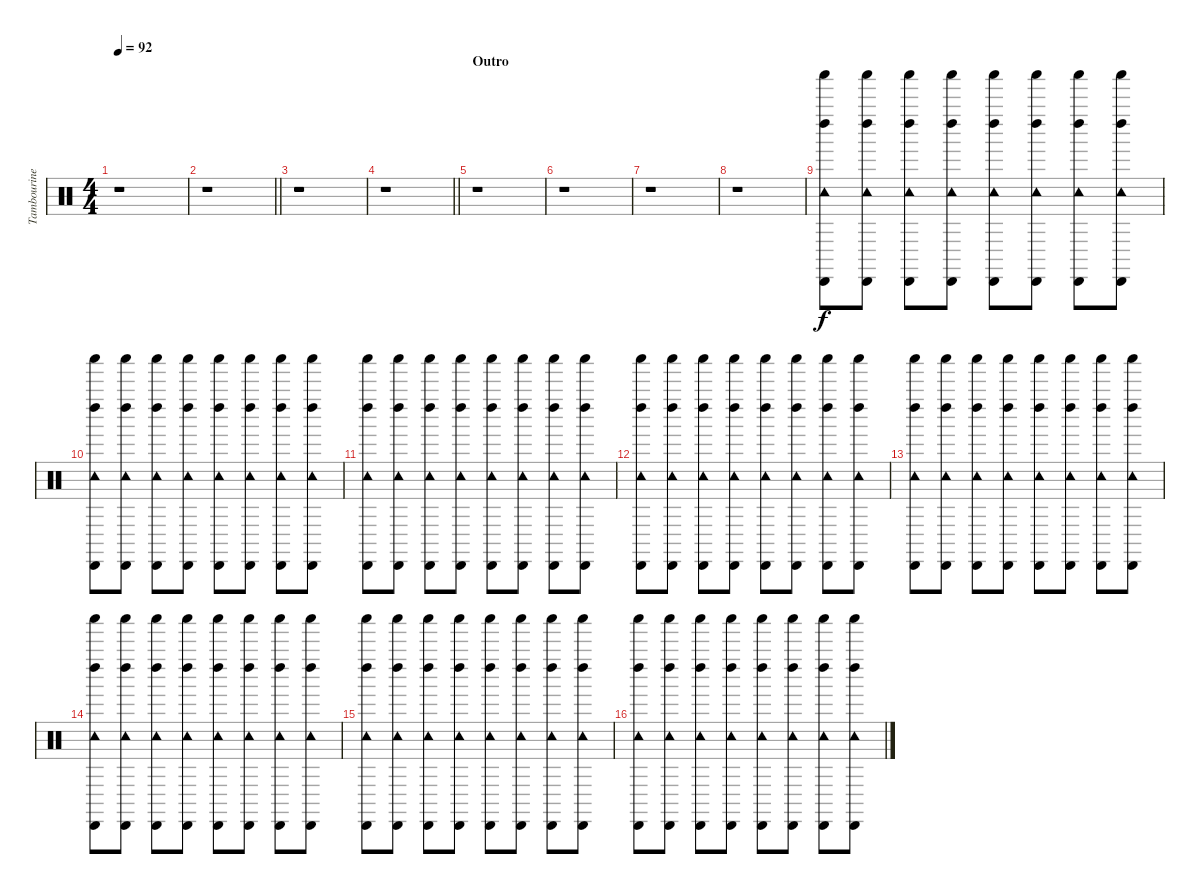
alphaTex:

\track ("Tambourine and Shaker" "Tambourine") {instrument percussion}
\staff {score}
\articulation defaults
\ts (4 4)
\tempo 92
\clef neutral
\ks c
r.1{dy f} |
\barLineRight lightlight
r.1 |
r.1 |
\barLineRight lightlight
r.1 |
\section ("" "Outro")
r.1 |
r.1 |
r.1 |
r.1{volume 4} |
("Shaker (hit)" "Left Maraca (hit)" "Cabasa (hit)" "Tambourine (hit)").8{volume 8} ("Shaker (hit)" "Left Maraca (hit)" "Cabasa (hit)" "Tambourine (hit)").8 ("Shaker (hit)" "Left Maraca (hit)" "Cabasa (hit)" "Tambourine (hit)").8 ("Shaker (hit)" "Left Maraca (hit)" "Cabasa (hit)" "Tambourine (hit)").8 ("Shaker (hit)" "Left Maraca (hit)" "Cabasa (hit)" "Tambourine (hit)").8 ("Shaker (hit)" "Left Maraca (hit)" "Cabasa (hit)" "Tambourine (hit)").8 ("Shaker (hit)" "Left Maraca (hit)" "Cabasa (hit)" "Tambourine (hit)").8 ("Shaker (hit)" "Left Maraca (hit)" "Cabasa (hit)" "Tambourine (hit)").8 |
("Shaker (hit)" "Left Maraca (hit)" "Cabasa (hit)" "Tambourine (hit)").8 ("Shaker (hit)" "Left Maraca (hit)" "Cabasa (hit)" "Tambourine (hit)").8 ("Shaker (hit)" "Left Maraca (hit)" "Cabasa (hit)" "Tambourine (hit)").8 ("Shaker (hit)" "Left Maraca (hit)" "Cabasa (hit)" "Tambourine (hit)").8 ("Shaker (hit)" "Left Maraca (hit)" "Cabasa (hit)" "Tambourine (hit)").8 ("Shaker (hit)" "Left Maraca (hit)" "Cabasa (hit)" "Tambourine (hit)").8 ("Shaker (hit)" "Left Maraca (hit)" "Cabasa (hit)" "Tambourine (hit)").8 ("Shaker (hit)" "Left Maraca (hit)" "Cabasa (hit)" "Tambourine (hit)").8 |
("Shaker (hit)" "Left Maraca (hit)" "Cabasa (hit)" "Tambourine (hit)").8 ("Shaker (hit)" "Left Maraca (hit)" "Cabasa (hit)" "Tambourine (hit)").8 ("Shaker (hit)" "Left Maraca (hit)" "Cabasa (hit)" "Tambourine (hit)").8 ("Shaker (hit)" "Left Maraca (hit)" "Cabasa (hit)" "Tambourine (hit)").8 ("Shaker (hit)" "Left Maraca (hit)" "Cabasa (hit)" "Tambourine (hit)").8 ("Shaker (hit)" "Left Maraca (hit)" "Cabasa (hit)" "Tambourine (hit)").8 ("Shaker (hit)" "Left Maraca (hit)" "Cabasa (hit)" "Tambourine (hit)").8 ("Shaker (hit)" "Left Maraca (hit)" "Cabasa (hit)" "Tambourine (hit)").8 |
("Shaker (hit)" "Left Maraca (hit)" "Cabasa (hit)" "Tambourine (hit)").8 ("Shaker (hit)" "Left Maraca (hit)" "Cabasa (hit)" "Tambourine (hit)").8 ("Shaker (hit)" "Left Maraca (hit)" "Cabasa (hit)" "Tambourine (hit)").8 ("Shaker (hit)" "Left Maraca (hit)" "Cabasa (hit)" "Tambourine (hit)").8 ("Shaker (hit)" "Left Maraca (hit)" "Cabasa (hit)" "Tambourine (hit)").8 ("Shaker (hit)" "Left Maraca (hit)" "Cabasa (hit)" "Tambourine (hit)").8 ("Shaker (hit)" "Left Maraca (hit)" "Cabasa (hit)" "Tambourine (hit)").8 ("Shaker (hit)" "Left Maraca (hit)" "Cabasa (hit)" "Tambourine (hit)").8 |
("Shaker (hit)" "Left Maraca (hit)" "Cabasa (hit)" "Tambourine (hit)").8 ("Shaker (hit)" "Left Maraca (hit)" "Cabasa (hit)" "Tambourine (hit)").8 ("Shaker (hit)" "Left Maraca (hit)" "Cabasa (hit)" "Tambourine (hit)").8 ("Shaker (hit)" "Left Maraca (hit)" "Cabasa (hit)" "Tambourine (hit)").8 ("Shaker (hit)" "Left Maraca (hit)" "Cabasa (hit)" "Tambourine (hit)").8 ("Shaker (hit)" "Left Maraca (hit)" "Cabasa (hit)" "Tambourine (hit)").8 ("Shaker (hit)" "Left Maraca (hit)" "Cabasa (hit)" "Tambourine (hit)").8 ("Shaker (hit)" "Left Maraca (hit)" "Cabasa (hit)" "Tambourine (hit)").8 |
("Shaker (hit)" "Left Maraca (hit)" "Cabasa (hit)" "Tambourine (hit)").8 ("Shaker (hit)" "Left Maraca (hit)" "Cabasa (hit)" "Tambourine (hit)").8 ("Shaker (hit)" "Left Maraca (hit)" "Cabasa (hit)" "Tambourine (hit)").8 ("Shaker (hit)" "Left Maraca (hit)" "Cabasa (hit)" "Tambourine (hit)").8 ("Shaker (hit)" "Left Maraca (hit)" "Cabasa (hit)" "Tambourine (hit)").8 ("Shaker (hit)" "Left Maraca (hit)" "Cabasa (hit)" "Tambourine (hit)").8 ("Shaker (hit)" "Left Maraca (hit)" "Cabasa (hit)" "Tambourine (hit)").8 ("Shaker (hit)" "Left Maraca (hit)" "Cabasa (hit)" "Tambourine (hit)").8 |
("Shaker (hit)" "Left Maraca (hit)" "Cabasa (hit)" "Tambourine (hit)").8 ("Shaker (hit)" "Left Maraca (hit)" "Cabasa (hit)" "Tambourine (hit)").8 ("Shaker (hit)" "Left Maraca (hit)" "Cabasa (hit)" "Tambourine (hit)").8 ("Shaker (hit)" "Left Maraca (hit)" "Cabasa (hit)" "Tambourine (hit)").8 ("Shaker (hit)" "Left Maraca (hit)" "Cabasa (hit)" "Tambourine (hit)").8 ("Shaker (hit)" "Left Maraca (hit)" "Cabasa (hit)" "Tambourine (hit)").8 ("Shaker (hit)" "Left Maraca (hit)" "Cabasa (hit)" "Tambourine (hit)").8 ("Shaker (hit)" "Left Maraca (hit)" "Cabasa (hit)" "Tambourine (hit)").8 |
("Shaker (hit)" "Left Maraca (hit)" "Cabasa (hit)" "Tambourine (hit)").8 ("Shaker (hit)" "Left Maraca (hit)" "Cabasa (hit)" "Tambourine (hit)").8 ("Shaker (hit)" "Left Maraca (hit)" "Cabasa (hit)" "Tambourine (hit)").8 ("Shaker (hit)" "Left Maraca (hit)" "Cabasa (hit)" "Tambourine (hit)").8 ("Shaker (hit)" "Left Maraca (hit)" "Cabasa (hit)" "Tambourine (hit)").8 ("Shaker (hit)" "Left Maraca (hit)" "Cabasa (hit)" "Tambourine (hit)").8 ("Shaker (hit)" "Left Maraca (hit)" "Cabasa (hit)" "Tambourine (hit)").8 ("Shaker (hit)" "Left Maraca (hit)" "Cabasa (hit)" "Tambourine (hit)").8
